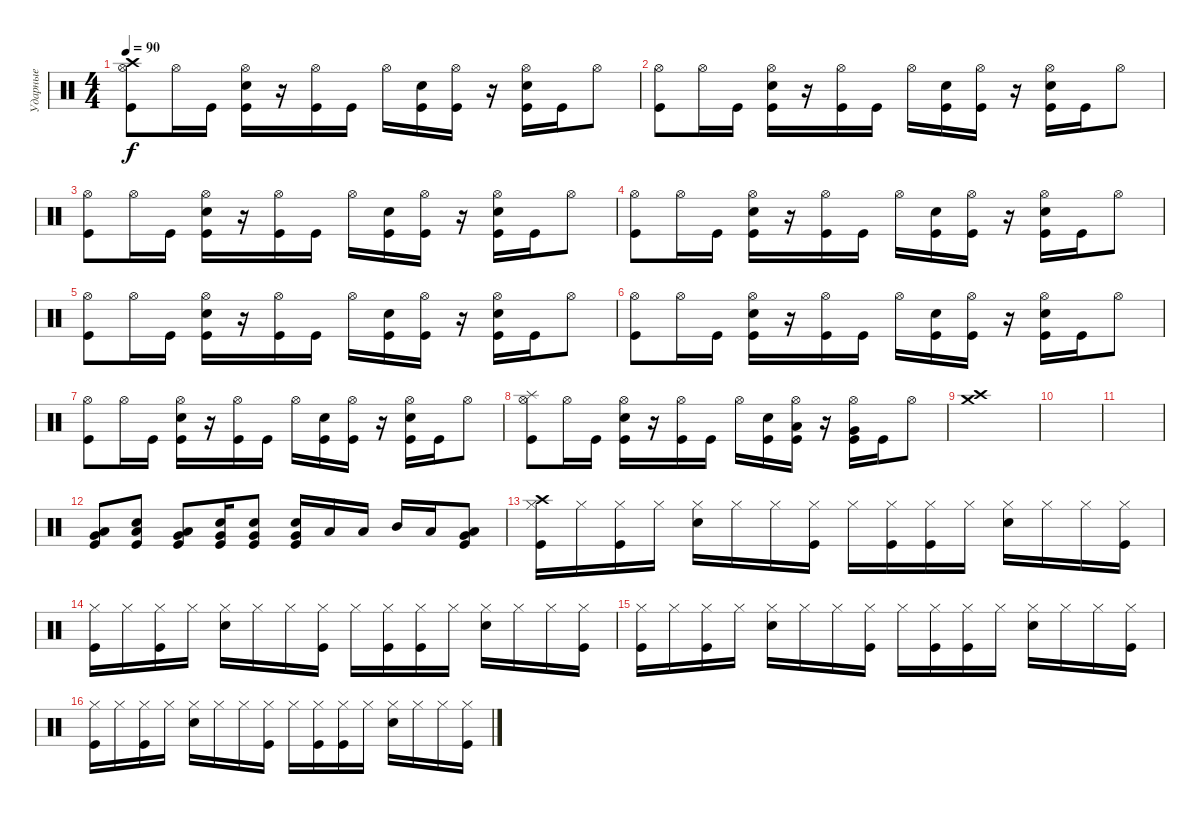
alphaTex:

\track ("Ударные" "Ударные") {instrument percussion}
\staff {score}
\articulation defaults
\ts (4 4)
\tempo 90
\clef neutral
\ks c
("Crash high (hit)" "Kick (hit)" "Hi-Hat (open)").8{dy f} "Hi-Hat (open)".16 "Kick (hit)".16 ("Kick (hit)" "Hi-Hat (open)" "Snare (hit) 2").16 r.16 ("Kick (hit)" "Hi-Hat (open)").16 "Kick (hit)".16 "Hi-Hat (open)".16 ("Kick (hit)" "Snare (hit) 2").16 ("Kick (hit)" "Hi-Hat (open)").16 r.16 ("Kick (hit)" "Hi-Hat (open)" "Snare (hit) 2").16 "Kick (hit)".16 "Hi-Hat (open)".8 |
("Hi-Hat (open)" "Kick (hit)").8 "Hi-Hat (open)".16 "Kick (hit)".16 ("Kick (hit)" "Hi-Hat (open)" "Snare (hit) 2").16 r.16 ("Kick (hit)" "Hi-Hat (open)").16 "Kick (hit)".16 "Hi-Hat (open)".16 ("Kick (hit)" "Snare (hit) 2").16 ("Kick (hit)" "Hi-Hat (open)").16 r.16 ("Kick (hit)" "Hi-Hat (open)" "Snare (hit) 2").16 "Kick (hit)".16 "Hi-Hat (open)".8 |
("Hi-Hat (open)" "Kick (hit)").8 "Hi-Hat (open)".16 "Kick (hit)".16 ("Kick (hit)" "Hi-Hat (open)" "Snare (hit) 2").16 r.16 ("Kick (hit)" "Hi-Hat (open)").16 "Kick (hit)".16 "Hi-Hat (open)".16 ("Kick (hit)" "Snare (hit) 2").16 ("Kick (hit)" "Hi-Hat (open)").16 r.16 ("Kick (hit)" "Hi-Hat (open)" "Snare (hit) 2").16 "Kick (hit)".16 "Hi-Hat (open)".8 |
("Hi-Hat (open)" "Kick (hit)").8 "Hi-Hat (open)".16 "Kick (hit)".16 ("Kick (hit)" "Hi-Hat (open)" "Snare (hit) 2").16 r.16 ("Kick (hit)" "Hi-Hat (open)").16 "Kick (hit)".16 "Hi-Hat (open)".16 ("Kick (hit)" "Snare (hit) 2").16 ("Kick (hit)" "Hi-Hat (open)").16 r.16 ("Kick (hit)" "Hi-Hat (open)" "Snare (hit) 2").16 "Kick (hit)".16 "Hi-Hat (open)".8 |
("Hi-Hat (open)" "Kick (hit)").8 "Hi-Hat (open)".16 "Kick (hit)".16 ("Kick (hit)" "Hi-Hat (open)" "Snare (hit) 2").16 r.16 ("Kick (hit)" "Hi-Hat (open)").16 "Kick (hit)".16 "Hi-Hat (open)".16 ("Kick (hit)" "Snare (hit) 2").16 ("Kick (hit)" "Hi-Hat (open)").16 r.16 ("Kick (hit)" "Hi-Hat (open)" "Snare (hit) 2").16 "Kick (hit)".16 "Hi-Hat (open)".8 |
("Hi-Hat (open)" "Kick (hit)").8 "Hi-Hat (open)".16 "Kick (hit)".16 ("Kick (hit)" "Hi-Hat (open)" "Snare (hit) 2").16 r.16 ("Kick (hit)" "Hi-Hat (open)").16 "Kick (hit)".16 "Hi-Hat (open)".16 ("Kick (hit)" "Snare (hit) 2").16 ("Kick (hit)" "Hi-Hat (open)").16 r.16 ("Kick (hit)" "Hi-Hat (open)" "Snare (hit) 2").16 "Kick (hit)".16 "Hi-Hat (open)".8 |
("Hi-Hat (open)" "Kick (hit)").8 "Hi-Hat (open)".16 "Kick (hit)".16 ("Kick (hit)" "Hi-Hat (open)" "Snare (hit) 2").16 r.16 ("Kick (hit)" "Hi-Hat (open)").16 "Kick (hit)".16 "Hi-Hat (open)".16 ("Kick (hit)" "Snare (hit) 2").16 ("Kick (hit)" "Hi-Hat (open)").16 r.16 ("Kick (hit)" "Hi-Hat (open)" "Snare (hit) 2").16 "Kick (hit)".16 "Hi-Hat (open)".8 |
("Hi-Hat (open)" "Kick (hit)" "Splash (hit)").8 "Hi-Hat (open)".16 "Kick (hit)".16 ("Kick (hit)" "Hi-Hat (open)" "Snare (hit) 2").16 r.16 ("Kick (hit)" "Hi-Hat (open)").16 "Kick (hit)".16 "Hi-Hat (open)".16 ("Kick (hit)" "Snare (hit) 2").16 ("Kick (hit)" "Hi-Hat (open)" "Low Tom (hit)").16 r.16 ("Kick (hit)" "Hi-Hat (open)" "Very Low Tom (hit)").16 "Kick (hit)".16 "Hi-Hat (open)".8 |
("Crash high (hit)" "Crash medium (hit)").1 |
|
|
("Very Low Tom (hit)" "Low Floor Tom (hit)" "Kick (hit)").8 ("Low Floor Tom (hit)" "Snare (hit) 2" "Kick (hit)").8 ("Very Low Tom (hit)" "Low Floor Tom (hit)" "Kick (hit)").8 ("Snare (hit) 2" "Very Low Tom (hit)" "Kick (hit)").16 ("Snare (hit) 2" "Very Low Tom (hit)" "Kick (hit)").8 ("Snare (hit) 2" "Very Low Tom (hit)" "Kick (hit)").16 "Low Tom (hit)".16 "Low Tom (hit)".16 "Mid Tom (hit)".16 "Low Tom (hit)".16 ("Very Low Tom (hit)" "Low Floor Tom (hit)" "Kick (hit)").8 |
("Crash high (hit)" "Hi-Hat (closed)" "Kick (hit)").16 "Hi-Hat (closed)".16 ("Hi-Hat (closed)" "Kick (hit)").16 "Hi-Hat (closed)".16 ("Hi-Hat (closed)" "Snare (hit) 2").16 "Hi-Hat (closed)".16 "Hi-Hat (closed)".16 ("Hi-Hat (closed)" "Kick (hit)").16 "Hi-Hat (closed)".16 ("Hi-Hat (closed)" "Kick (hit)").16 ("Hi-Hat (closed)" "Kick (hit)").16 "Hi-Hat (closed)".16 ("Hi-Hat (closed)" "Snare (hit) 2").16 "Hi-Hat (closed)".16 "Hi-Hat (closed)".16 ("Hi-Hat (closed)" "Kick (hit)").16 |
("Hi-Hat (closed)" "Kick (hit)").16 "Hi-Hat (closed)".16 ("Hi-Hat (closed)" "Kick (hit)").16 "Hi-Hat (closed)".16 ("Hi-Hat (closed)" "Snare (hit) 2").16 "Hi-Hat (closed)".16 "Hi-Hat (closed)".16 ("Hi-Hat (closed)" "Kick (hit)").16 "Hi-Hat (closed)".16 ("Hi-Hat (closed)" "Kick (hit)").16 ("Hi-Hat (closed)" "Kick (hit)").16 "Hi-Hat (closed)".16 ("Hi-Hat (closed)" "Snare (hit) 2").16 "Hi-Hat (closed)".16 "Hi-Hat (closed)".16 ("Hi-Hat (closed)" "Kick (hit)").16 |
("Hi-Hat (closed)" "Kick (hit)").16 "Hi-Hat (closed)".16 ("Hi-Hat (closed)" "Kick (hit)").16 "Hi-Hat (closed)".16 ("Hi-Hat (closed)" "Snare (hit) 2").16 "Hi-Hat (closed)".16 "Hi-Hat (closed)".16 ("Hi-Hat (closed)" "Kick (hit)").16 "Hi-Hat (closed)".16 ("Hi-Hat (closed)" "Kick (hit)").16 ("Hi-Hat (closed)" "Kick (hit)").16 "Hi-Hat (closed)".16 ("Hi-Hat (closed)" "Snare (hit) 2").16 "Hi-Hat (closed)".16 "Hi-Hat (closed)".16 ("Hi-Hat (closed)" "Kick (hit)").16 |
("Hi-Hat (closed)" "Kick (hit)").16 "Hi-Hat (closed)".16 ("Hi-Hat (closed)" "Kick (hit)").16 "Hi-Hat (closed)".16 ("Hi-Hat (closed)" "Snare (hit) 2").16 "Hi-Hat (closed)".16 "Hi-Hat (closed)".16 ("Hi-Hat (closed)" "Kick (hit)").16 "Hi-Hat (closed)".16 ("Hi-Hat (closed)" "Kick (hit)").16 ("Hi-Hat (closed)" "Kick (hit)").16 "Hi-Hat (closed)".16 ("Hi-Hat (closed)" "Snare (hit) 2").16 "Hi-Hat (closed)".16 "Hi-Hat (closed)".16 ("Hi-Hat (closed)" "Kick (hit)").16
